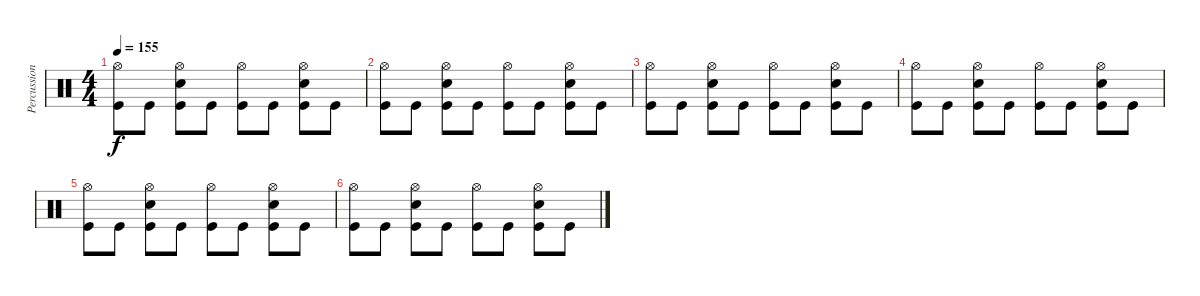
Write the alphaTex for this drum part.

\track ("Percussion" "Percussion") {instrument percussion}
\staff {score}
\articulation defaults
\ts (4 4)
\tempo 155
\clef neutral
\ks c
("Hi-Hat (open)" "Kick (hit)").8{dy f} "Kick (hit)".8 ("Hi-Hat (open)" "Snare (hit) 2" "Kick (hit)").8 "Kick (hit)".8 ("Hi-Hat (open)" "Kick (hit)").8 "Kick (hit)".8 ("Hi-Hat (open)" "Snare (hit) 2" "Kick (hit)").8 "Kick (hit)".8 |
("Hi-Hat (open)" "Kick (hit)").8 "Kick (hit)".8 ("Hi-Hat (open)" "Snare (hit) 2" "Kick (hit)").8 "Kick (hit)".8 ("Hi-Hat (open)" "Kick (hit)").8 "Kick (hit)".8 ("Hi-Hat (open)" "Snare (hit) 2" "Kick (hit)").8 "Kick (hit)".8 |
("Hi-Hat (open)" "Kick (hit)").8 "Kick (hit)".8 ("Hi-Hat (open)" "Snare (hit) 2" "Kick (hit)").8 "Kick (hit)".8 ("Hi-Hat (open)" "Kick (hit)").8 "Kick (hit)".8 ("Hi-Hat (open)" "Snare (hit) 2" "Kick (hit)").8 "Kick (hit)".8 |
("Hi-Hat (open)" "Kick (hit)").8 "Kick (hit)".8 ("Hi-Hat (open)" "Snare (hit) 2" "Kick (hit)").8 "Kick (hit)".8 ("Hi-Hat (open)" "Kick (hit)").8 "Kick (hit)".8 ("Hi-Hat (open)" "Snare (hit) 2" "Kick (hit)").8 "Kick (hit)".8 |
("Hi-Hat (open)" "Kick (hit)").8 "Kick (hit)".8 ("Hi-Hat (open)" "Snare (hit) 2" "Kick (hit)").8 "Kick (hit)".8 ("Hi-Hat (open)" "Kick (hit)").8 "Kick (hit)".8 ("Hi-Hat (open)" "Snare (hit) 2" "Kick (hit)").8 "Kick (hit)".8 |
("Hi-Hat (open)" "Kick (hit)").8 "Kick (hit)".8 ("Hi-Hat (open)" "Snare (hit) 2" "Kick (hit)").8 "Kick (hit)".8 ("Hi-Hat (open)" "Kick (hit)").8 "Kick (hit)".8 ("Hi-Hat (open)" "Snare (hit) 2" "Kick (hit)").8 "Kick (hit)".8
